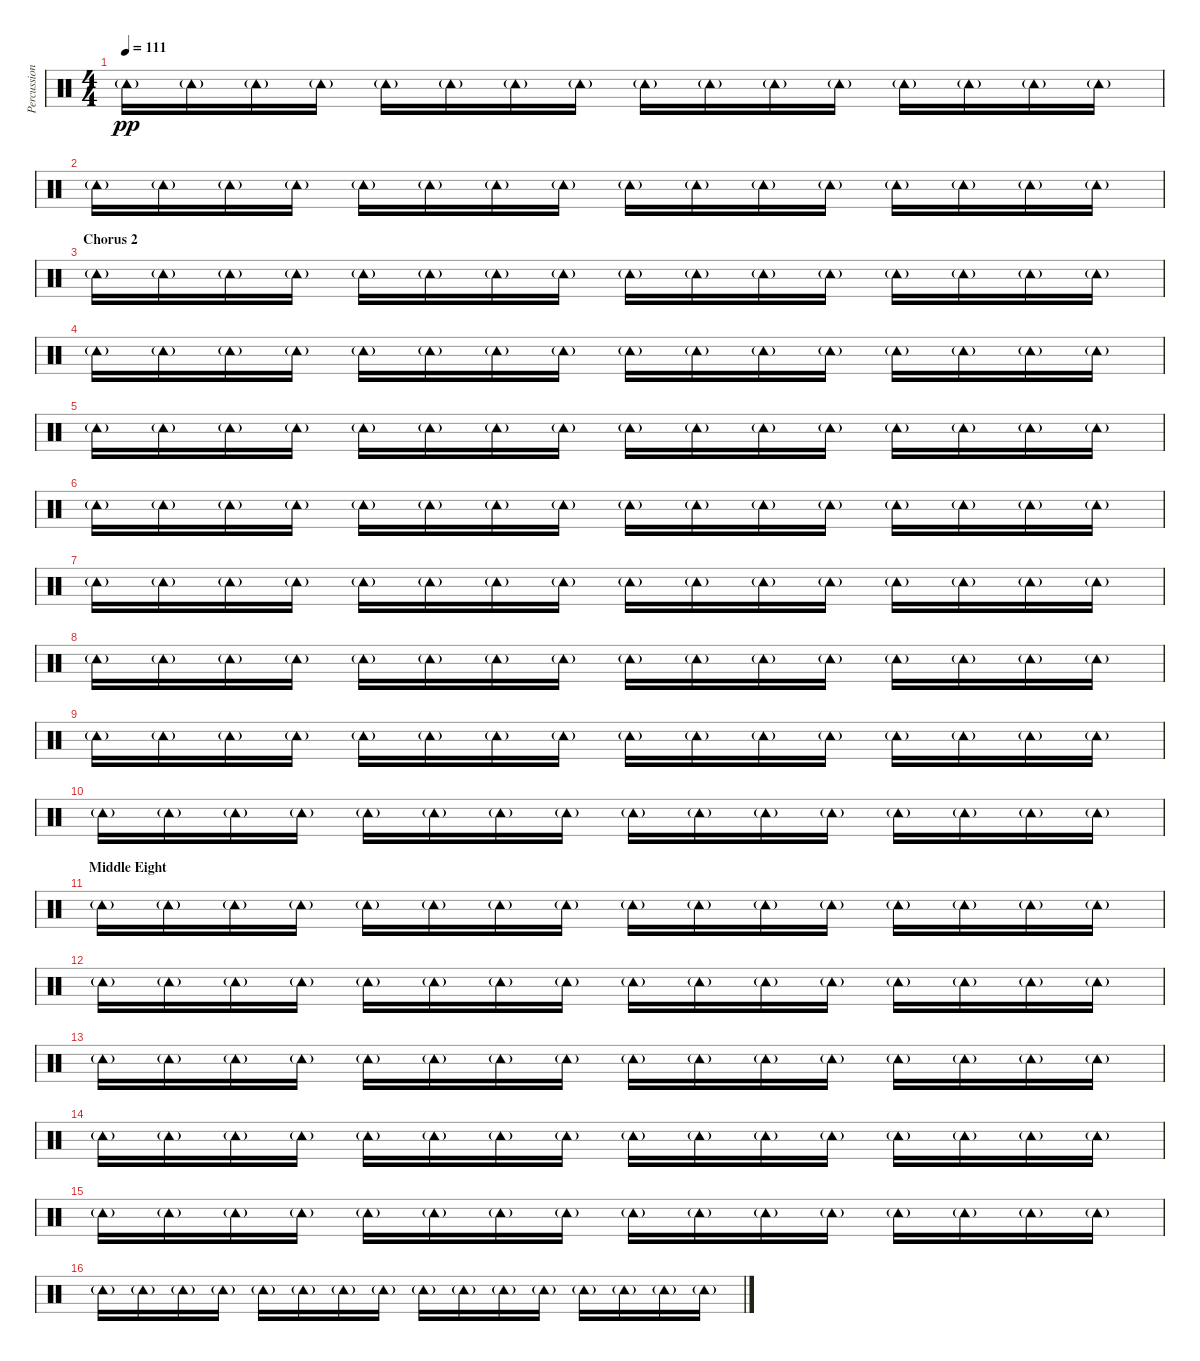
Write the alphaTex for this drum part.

\track ("Percussion" "Percussion") {instrument percussion}
\staff {score}
\articulation defaults
\ts (4 4)
\tempo 111
\clef neutral
\ks c "Tambourine (hit)"{g}.16{dy pp} "Tambourine (hit)"{g}.16 "Tambourine (hit)"{g}.16 "Tambourine (hit)"{g}.16 "Tambourine (hit)"{g}.16 "Tambourine (hit)"{g}.16 "Tambourine (hit)"{g}.16 "Tambourine (hit)"{g}.16 "Tambourine (hit)"{g}.16 "Tambourine (hit)"{g}.16 "Tambourine (hit)"{g}.16 "Tambourine (hit)"{g}.16 "Tambourine (hit)"{g}.16 "Tambourine (hit)"{g}.16 "Tambourine (hit)"{g}.16 "Tambourine (hit)"{g}.16
|
"Tambourine (hit)"{g}.16 "Tambourine (hit)"{g}.16 "Tambourine (hit)"{g}.16 "Tambourine (hit)"{g}.16 "Tambourine (hit)"{g}.16 "Tambourine (hit)"{g}.16 "Tambourine (hit)"{g}.16 "Tambourine (hit)"{g}.16 "Tambourine (hit)"{g}.16 "Tambourine (hit)"{g}.16 "Tambourine (hit)"{g}.16 "Tambourine (hit)"{g}.16 "Tambourine (hit)"{g}.16 "Tambourine (hit)"{g}.16 "Tambourine (hit)"{g}.16 "Tambourine (hit)"{g}.16 |
\section ("" "Chorus 2")
"Tambourine (hit)"{g}.16 "Tambourine (hit)"{g}.16 "Tambourine (hit)"{g}.16 "Tambourine (hit)"{g}.16 "Tambourine (hit)"{g}.16 "Tambourine (hit)"{g}.16 "Tambourine (hit)"{g}.16 "Tambourine (hit)"{g}.16 "Tambourine (hit)"{g}.16 "Tambourine (hit)"{g}.16 "Tambourine (hit)"{g}.16 "Tambourine (hit)"{g}.16 "Tambourine (hit)"{g}.16 "Tambourine (hit)"{g}.16 "Tambourine (hit)"{g}.16 "Tambourine (hit)"{g}.16 |
"Tambourine (hit)"{g}.16 "Tambourine (hit)"{g}.16 "Tambourine (hit)"{g}.16 "Tambourine (hit)"{g}.16 "Tambourine (hit)"{g}.16 "Tambourine (hit)"{g}.16 "Tambourine (hit)"{g}.16 "Tambourine (hit)"{g}.16 "Tambourine (hit)"{g}.16 "Tambourine (hit)"{g}.16 "Tambourine (hit)"{g}.16 "Tambourine (hit)"{g}.16 "Tambourine (hit)"{g}.16 "Tambourine (hit)"{g}.16 "Tambourine (hit)"{g}.16 "Tambourine (hit)"{g}.16 |
"Tambourine (hit)"{g}.16 "Tambourine (hit)"{g}.16 "Tambourine (hit)"{g}.16 "Tambourine (hit)"{g}.16 "Tambourine (hit)"{g}.16 "Tambourine (hit)"{g}.16 "Tambourine (hit)"{g}.16 "Tambourine (hit)"{g}.16 "Tambourine (hit)"{g}.16 "Tambourine (hit)"{g}.16 "Tambourine (hit)"{g}.16 "Tambourine (hit)"{g}.16 "Tambourine (hit)"{g}.16 "Tambourine (hit)"{g}.16 "Tambourine (hit)"{g}.16 "Tambourine (hit)"{g}.16 |
"Tambourine (hit)"{g}.16 "Tambourine (hit)"{g}.16 "Tambourine (hit)"{g}.16 "Tambourine (hit)"{g}.16 "Tambourine (hit)"{g}.16 "Tambourine (hit)"{g}.16 "Tambourine (hit)"{g}.16 "Tambourine (hit)"{g}.16 "Tambourine (hit)"{g}.16 "Tambourine (hit)"{g}.16 "Tambourine (hit)"{g}.16 "Tambourine (hit)"{g}.16 "Tambourine (hit)"{g}.16 "Tambourine (hit)"{g}.16 "Tambourine (hit)"{g}.16 "Tambourine (hit)"{g}.16 |
"Tambourine (hit)"{g}.16 "Tambourine (hit)"{g}.16 "Tambourine (hit)"{g}.16 "Tambourine (hit)"{g}.16 "Tambourine (hit)"{g}.16 "Tambourine (hit)"{g}.16 "Tambourine (hit)"{g}.16 "Tambourine (hit)"{g}.16 "Tambourine (hit)"{g}.16 "Tambourine (hit)"{g}.16 "Tambourine (hit)"{g}.16 "Tambourine (hit)"{g}.16 "Tambourine (hit)"{g}.16 "Tambourine (hit)"{g}.16 "Tambourine (hit)"{g}.16 "Tambourine (hit)"{g}.16 |
"Tambourine (hit)"{g}.16 "Tambourine (hit)"{g}.16 "Tambourine (hit)"{g}.16 "Tambourine (hit)"{g}.16 "Tambourine (hit)"{g}.16 "Tambourine (hit)"{g}.16 "Tambourine (hit)"{g}.16 "Tambourine (hit)"{g}.16 "Tambourine (hit)"{g}.16 "Tambourine (hit)"{g}.16 "Tambourine (hit)"{g}.16 "Tambourine (hit)"{g}.16 "Tambourine (hit)"{g}.16 "Tambourine (hit)"{g}.16 "Tambourine (hit)"{g}.16 "Tambourine (hit)"{g}.16 |
"Tambourine (hit)"{g}.16 "Tambourine (hit)"{g}.16 "Tambourine (hit)"{g}.16 "Tambourine (hit)"{g}.16 "Tambourine (hit)"{g}.16 "Tambourine (hit)"{g}.16 "Tambourine (hit)"{g}.16 "Tambourine (hit)"{g}.16 "Tambourine (hit)"{g}.16 "Tambourine (hit)"{g}.16 "Tambourine (hit)"{g}.16 "Tambourine (hit)"{g}.16 "Tambourine (hit)"{g}.16 "Tambourine (hit)"{g}.16 "Tambourine (hit)"{g}.16 "Tambourine (hit)"{g}.16 |
"Tambourine (hit)"{g}.16 "Tambourine (hit)"{g}.16 "Tambourine (hit)"{g}.16 "Tambourine (hit)"{g}.16 "Tambourine (hit)"{g}.16 "Tambourine (hit)"{g}.16 "Tambourine (hit)"{g}.16 "Tambourine (hit)"{g}.16 "Tambourine (hit)"{g}.16 "Tambourine (hit)"{g}.16 "Tambourine (hit)"{g}.16 "Tambourine (hit)"{g}.16 "Tambourine (hit)"{g}.16 "Tambourine (hit)"{g}.16 "Tambourine (hit)"{g}.16 "Tambourine (hit)"{g}.16 |
\section ("" "Middle Eight")
"Tambourine (hit)"{g}.16 "Tambourine (hit)"{g}.16 "Tambourine (hit)"{g}.16 "Tambourine (hit)"{g}.16 "Tambourine (hit)"{g}.16 "Tambourine (hit)"{g}.16 "Tambourine (hit)"{g}.16 "Tambourine (hit)"{g}.16 "Tambourine (hit)"{g}.16 "Tambourine (hit)"{g}.16 "Tambourine (hit)"{g}.16 "Tambourine (hit)"{g}.16 "Tambourine (hit)"{g}.16 "Tambourine (hit)"{g}.16 "Tambourine (hit)"{g}.16 "Tambourine (hit)"{g}.16 |
"Tambourine (hit)"{g}.16 "Tambourine (hit)"{g}.16 "Tambourine (hit)"{g}.16 "Tambourine (hit)"{g}.16 "Tambourine (hit)"{g}.16 "Tambourine (hit)"{g}.16 "Tambourine (hit)"{g}.16 "Tambourine (hit)"{g}.16 "Tambourine (hit)"{g}.16 "Tambourine (hit)"{g}.16 "Tambourine (hit)"{g}.16 "Tambourine (hit)"{g}.16 "Tambourine (hit)"{g}.16 "Tambourine (hit)"{g}.16 "Tambourine (hit)"{g}.16 "Tambourine (hit)"{g}.16 |
"Tambourine (hit)"{g}.16 "Tambourine (hit)"{g}.16 "Tambourine (hit)"{g}.16 "Tambourine (hit)"{g}.16 "Tambourine (hit)"{g}.16 "Tambourine (hit)"{g}.16 "Tambourine (hit)"{g}.16 "Tambourine (hit)"{g}.16 "Tambourine (hit)"{g}.16 "Tambourine (hit)"{g}.16 "Tambourine (hit)"{g}.16 "Tambourine (hit)"{g}.16 "Tambourine (hit)"{g}.16 "Tambourine (hit)"{g}.16 "Tambourine (hit)"{g}.16 "Tambourine (hit)"{g}.16 |
"Tambourine (hit)"{g}.16 "Tambourine (hit)"{g}.16 "Tambourine (hit)"{g}.16 "Tambourine (hit)"{g}.16 "Tambourine (hit)"{g}.16 "Tambourine (hit)"{g}.16 "Tambourine (hit)"{g}.16 "Tambourine (hit)"{g}.16 "Tambourine (hit)"{g}.16 "Tambourine (hit)"{g}.16 "Tambourine (hit)"{g}.16 "Tambourine (hit)"{g}.16 "Tambourine (hit)"{g}.16 "Tambourine (hit)"{g}.16 "Tambourine (hit)"{g}.16 "Tambourine (hit)"{g}.16 |
"Tambourine (hit)"{g}.16 "Tambourine (hit)"{g}.16 "Tambourine (hit)"{g}.16 "Tambourine (hit)"{g}.16 "Tambourine (hit)"{g}.16 "Tambourine (hit)"{g}.16 "Tambourine (hit)"{g}.16 "Tambourine (hit)"{g}.16 "Tambourine (hit)"{g}.16 "Tambourine (hit)"{g}.16 "Tambourine (hit)"{g}.16 "Tambourine (hit)"{g}.16 "Tambourine (hit)"{g}.16 "Tambourine (hit)"{g}.16 "Tambourine (hit)"{g}.16 "Tambourine (hit)"{g}.16 |
"Tambourine (hit)"{g}.16 "Tambourine (hit)"{g}.16 "Tambourine (hit)"{g}.16 "Tambourine (hit)"{g}.16 "Tambourine (hit)"{g}.16 "Tambourine (hit)"{g}.16 "Tambourine (hit)"{g}.16 "Tambourine (hit)"{g}.16 "Tambourine (hit)"{g}.16 "Tambourine (hit)"{g}.16 "Tambourine (hit)"{g}.16 "Tambourine (hit)"{g}.16 "Tambourine (hit)"{g}.16 "Tambourine (hit)"{g}.16 "Tambourine (hit)"{g}.16 "Tambourine (hit)"{g}.16
